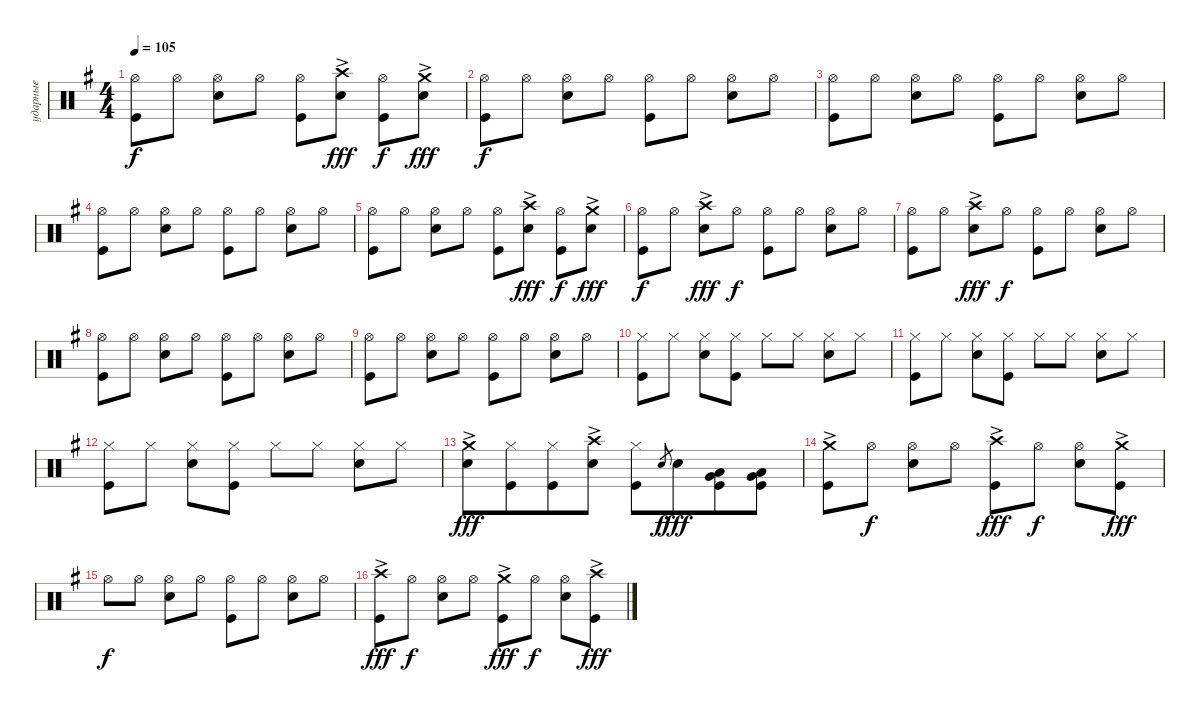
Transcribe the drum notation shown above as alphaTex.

\track ("ударные" "ударные") {instrument percussion}
\staff {score}
\articulation defaults
\ts (4 4)
\tempo 105
\clef neutral
\ks eminor
("Kick (hit)" "Hi-Hat (open)").8{dy f} "Hi-Hat (open)".8 ("Snare (hit) 2" "Hi-Hat (open)").8 "Hi-Hat (open)".8 ("Kick (hit)" "Hi-Hat (open)").8 ("Snare (hit) 2" "Crash high (hit)"{ac}).8{dy fff} ("Kick (hit)" "Hi-Hat (open)").8{dy f} ("Snare (hit) 2" "Crash medium (hit)"{ac}).8{dy fff} |
("Kick (hit)" "Hi-Hat (open)").8{dy f} "Hi-Hat (open)".8 ("Snare (hit) 2" "Hi-Hat (open)").8 "Hi-Hat (open)".8 ("Kick (hit)" "Hi-Hat (open)").8 "Hi-Hat (open)".8 ("Snare (hit) 2" "Hi-Hat (open)").8 "Hi-Hat (open)".8 |
("Kick (hit)" "Hi-Hat (open)").8 "Hi-Hat (open)".8 ("Snare (hit) 2" "Hi-Hat (open)").8 "Hi-Hat (open)".8 ("Kick (hit)" "Hi-Hat (open)").8 "Hi-Hat (open)".8 ("Snare (hit) 2" "Hi-Hat (open)").8 "Hi-Hat (open)".8 |
("Kick (hit)" "Hi-Hat (open)").8 "Hi-Hat (open)".8 ("Snare (hit) 2" "Hi-Hat (open)").8 "Hi-Hat (open)".8 ("Kick (hit)" "Hi-Hat (open)").8 "Hi-Hat (open)".8 ("Snare (hit) 2" "Hi-Hat (open)").8 "Hi-Hat (open)".8 |
("Kick (hit)" "Hi-Hat (open)").8 "Hi-Hat (open)".8 ("Snare (hit) 2" "Hi-Hat (open)").8 "Hi-Hat (open)".8 ("Kick (hit)" "Hi-Hat (open)").8 ("Snare (hit) 2" "Crash high (hit)"{ac}).8{dy fff} ("Kick (hit)" "Hi-Hat (open)").8{dy f} ("Snare (hit) 2" "Crash medium (hit)"{ac}).8{dy fff} |
("Kick (hit)" "Hi-Hat (open)").8{dy f} "Hi-Hat (open)".8 ("Snare (hit) 2" "Crash high (hit)"{ac}).8{dy fff} "Hi-Hat (open)".8{dy f} ("Kick (hit)" "Hi-Hat (open)").8 "Hi-Hat (open)".8 ("Snare (hit) 2" "Hi-Hat (open)").8 "Hi-Hat (open)".8 |
("Kick (hit)" "Hi-Hat (open)").8 "Hi-Hat (open)".8 ("Snare (hit) 2" "Crash high (hit)"{ac}).8{dy fff} "Hi-Hat (open)".8{dy f} ("Kick (hit)" "Hi-Hat (open)").8 "Hi-Hat (open)".8 ("Snare (hit) 2" "Hi-Hat (open)").8 "Hi-Hat (open)".8 |
("Kick (hit)" "Hi-Hat (open)").8 "Hi-Hat (open)".8 ("Snare (hit) 2" "Hi-Hat (open)").8 "Hi-Hat (open)".8 ("Kick (hit)" "Hi-Hat (open)").8 "Hi-Hat (open)".8 ("Snare (hit) 2" "Hi-Hat (open)").8 "Hi-Hat (open)".8 |
("Kick (hit)" "Hi-Hat (open)").8 "Hi-Hat (open)".8 ("Snare (hit) 2" "Hi-Hat (open)").8 "Hi-Hat (open)".8 ("Kick (hit)" "Hi-Hat (open)").8 "Hi-Hat (open)".8 ("Snare (hit) 2" "Hi-Hat (open)").8 "Hi-Hat (open)".8 |
("Kick (hit)" "Hi-Hat (closed)").8 "Hi-Hat (closed)".8 ("Snare (hit) 2" "Hi-Hat (closed)").8 ("Hi-Hat (closed)" "Kick (hit)").8 "Hi-Hat (closed)".8 "Hi-Hat (closed)".8 ("Snare (hit) 2" "Hi-Hat (closed)").8 "Hi-Hat (closed)".8 |
("Kick (hit)" "Hi-Hat (closed)").8 "Hi-Hat (closed)".8 ("Snare (hit) 2" "Hi-Hat (closed)").8 ("Hi-Hat (closed)" "Kick (hit)").8 "Hi-Hat (closed)".8 "Hi-Hat (closed)".8 ("Snare (hit) 2" "Hi-Hat (closed)").8 "Hi-Hat (closed)".8 |
("Kick (hit)" "Hi-Hat (closed)").8 "Hi-Hat (closed)".8 ("Snare (hit) 2" "Hi-Hat (closed)").8 ("Hi-Hat (closed)" "Kick (hit)").8 "Hi-Hat (closed)".8 "Hi-Hat (closed)".8 ("Snare (hit) 2" "Hi-Hat (closed)").8 "Hi-Hat (closed)".8 |
("Snare (hit) 2" "Crash medium (hit)"{ac}).8{dy fff} ("Kick (hit)" "Hi-Hat (closed)").8{beam merge} ("Kick (hit)" "Hi-Hat (closed)").8 ("Snare (hit) 2" "Crash high (hit)"{ac}).8 ("Kick (hit)" "Hi-Hat (closed)").8 "Snare (hit) 2".8{gr dy f} "Snare (hit) 2".8{dy fff beam merge} ("Kick (hit)" "Low Floor Tom (hit)" "Very Low Tom (hit)").8 ("Kick (hit)" "Low Floor Tom (hit)" "Very Low Tom (hit)").8 |
("Kick (hit)" "Crash medium (hit)"{ac}).8 "Hi-Hat (open)".8{dy f} ("Snare (hit) 2" "Hi-Hat (open)").8 "Hi-Hat (open)".8 ("Kick (hit)" "Crash high (hit)"{ac}).8{dy fff} "Hi-Hat (open)".8{dy f} ("Snare (hit) 2" "Hi-Hat (open)").8 ("Kick (hit)" "Crash medium (hit)"{ac}).8{dy fff} |
"Hi-Hat (open)".8{dy f} "Hi-Hat (open)".8 ("Snare (hit) 2" "Hi-Hat (open)").8 "Hi-Hat (open)".8 ("Kick (hit)" "Hi-Hat (open)").8 "Hi-Hat (open)".8 ("Snare (hit) 2" "Hi-Hat (open)").8 "Hi-Hat (open)".8 |
("Kick (hit)" "Crash high (hit)"{ac}).8{dy fff} "Hi-Hat (open)".8{dy f} ("Snare (hit) 2" "Hi-Hat (open)").8 "Hi-Hat (open)".8 ("Kick (hit)" "Crash medium (hit)"{ac}).8{dy fff} "Hi-Hat (open)".8{dy f} ("Snare (hit) 2" "Hi-Hat (open)").8 ("Kick (hit)" "Crash high (hit)"{ac}).8{dy fff}
